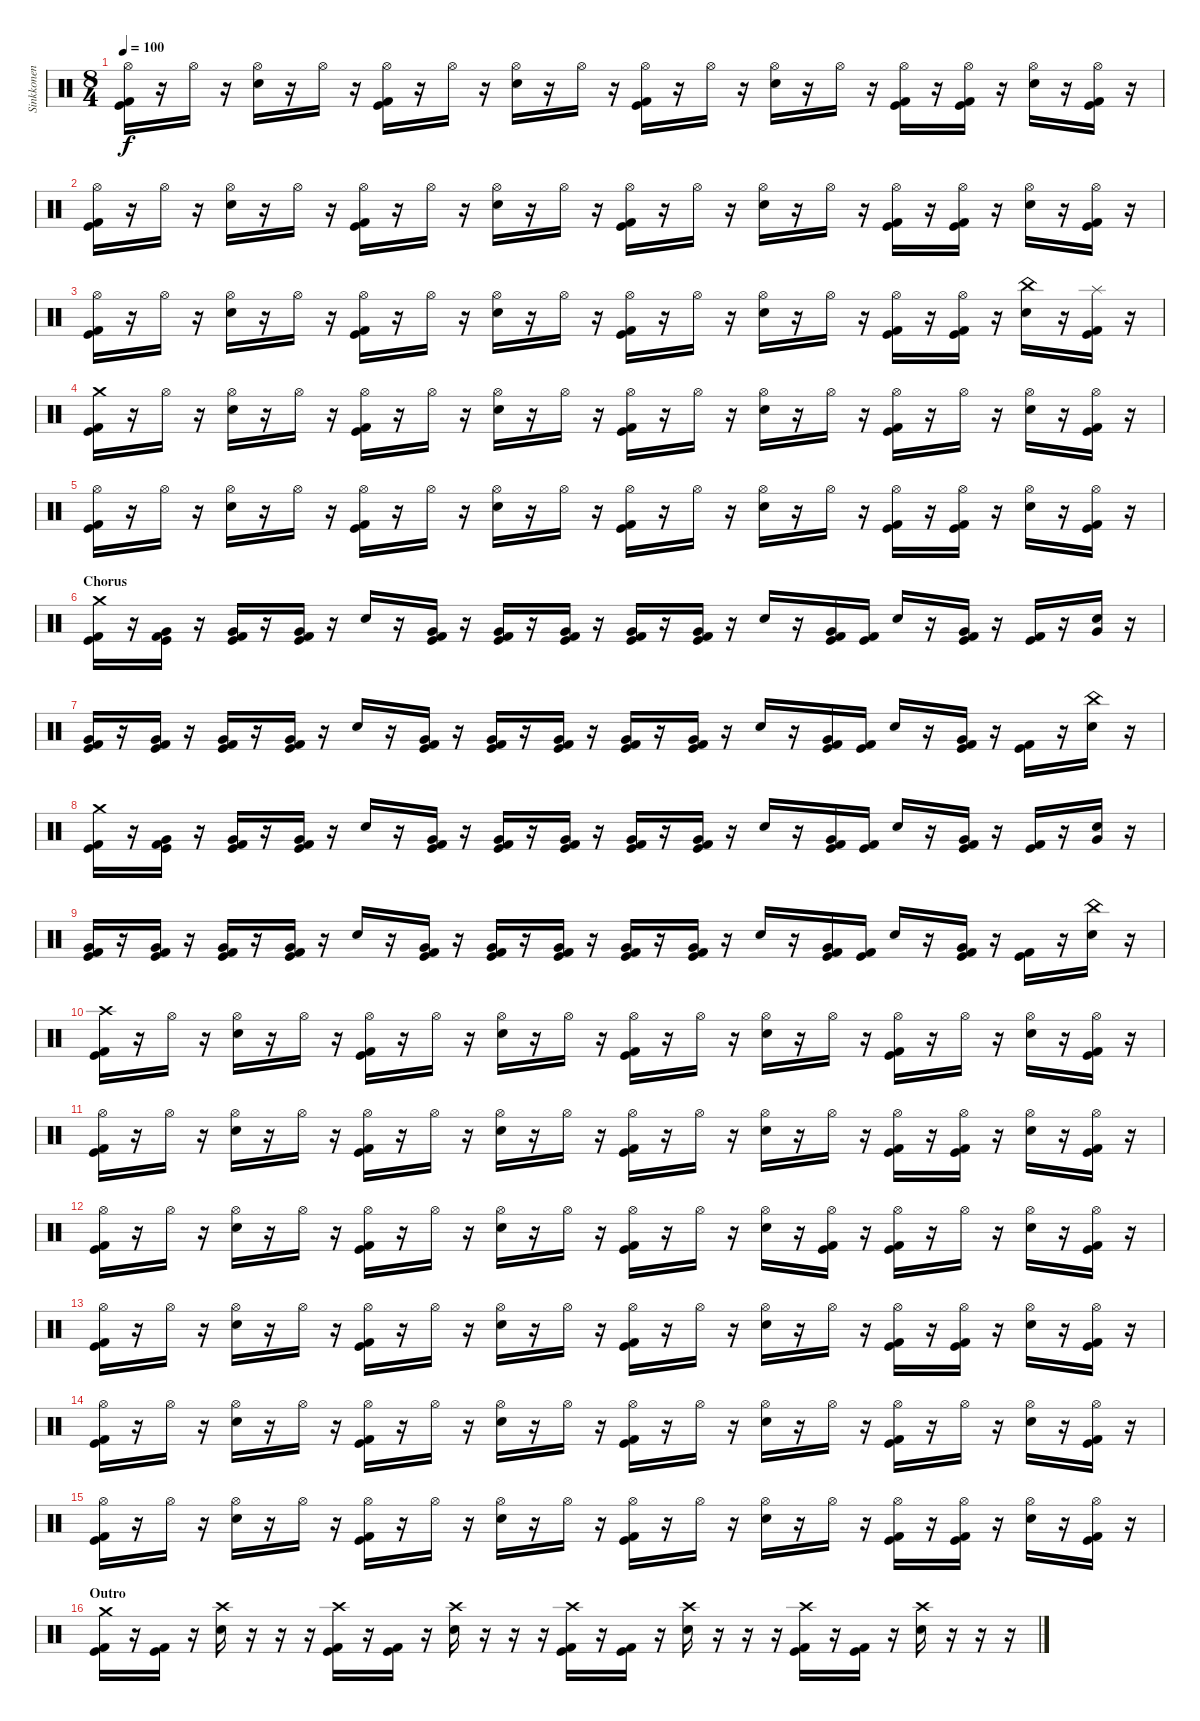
\track ("Sinkkonen" "Sinkkonen") {instrument percussion}
\staff {score}
\articulation defaults
\ts (8 4)
\tempo 100
\clef neutral
\ks c
("Hi-Hat (open)" "Kick (hit) 2" "Kick (hit)").16{dy f} r.16 "Hi-Hat (open)".16 r.16 ("Hi-Hat (open)" "Electric Snare (hit)").16 r.16 "Hi-Hat (open)".16 r.16 ("Hi-Hat (open)" "Kick (hit) 2" "Kick (hit)").16 r.16 "Hi-Hat (open)".16 r.16 ("Hi-Hat (open)" "Electric Snare (hit)").16 r.16 "Hi-Hat (open)".16 r.16 ("Hi-Hat (open)" "Kick (hit) 2" "Kick (hit)").16 r.16 "Hi-Hat (open)".16 r.16 ("Hi-Hat (open)" "Electric Snare (hit)").16 r.16 "Hi-Hat (open)".16 r.16 ("Hi-Hat (open)" "Kick (hit) 2" "Kick (hit)").16 r.16 ("Hi-Hat (open)" "Kick (hit) 2" "Kick (hit)").16 r.16 ("Hi-Hat (open)" "Electric Snare (hit)").16 r.16 ("Hi-Hat (open)" "Kick (hit) 2" "Kick (hit)").16 r.16 |
("Hi-Hat (open)" "Kick (hit) 2" "Kick (hit)").16 r.16 "Hi-Hat (open)".16 r.16 ("Hi-Hat (open)" "Electric Snare (hit)").16 r.16 "Hi-Hat (open)".16 r.16 ("Hi-Hat (open)" "Kick (hit) 2" "Kick (hit)").16 r.16 "Hi-Hat (open)".16 r.16 ("Hi-Hat (open)" "Electric Snare (hit)").16 r.16 "Hi-Hat (open)".16 r.16 ("Hi-Hat (open)" "Kick (hit) 2" "Kick (hit)").16 r.16 "Hi-Hat (open)".16 r.16 ("Hi-Hat (open)" "Electric Snare (hit)").16 r.16 "Hi-Hat (open)".16 r.16 ("Hi-Hat (open)" "Kick (hit) 2" "Kick (hit)").16 r.16 ("Hi-Hat (open)" "Kick (hit) 2" "Kick (hit)").16 r.16 ("Hi-Hat (open)" "Electric Snare (hit)").16 r.16 ("Hi-Hat (open)" "Kick (hit) 2" "Kick (hit)").16 r.16 |
("Hi-Hat (open)" "Kick (hit) 2" "Kick (hit)").16 r.16 "Hi-Hat (open)".16 r.16 ("Hi-Hat (open)" "Electric Snare (hit)").16 r.16 "Hi-Hat (open)".16 r.16 ("Hi-Hat (open)" "Kick (hit) 2" "Kick (hit)").16 r.16 "Hi-Hat (open)".16 r.16 ("Hi-Hat (open)" "Electric Snare (hit)").16 r.16 "Hi-Hat (open)".16 r.16 ("Hi-Hat (open)" "Kick (hit) 2" "Kick (hit)").16 r.16 "Hi-Hat (open)".16 r.16 ("Hi-Hat (open)" "Electric Snare (hit)").16 r.16 "Hi-Hat (open)".16 r.16 ("Hi-Hat (open)" "Kick (hit) 2" "Kick (hit)").16 r.16 ("Hi-Hat (open)" "Kick (hit) 2" "Kick (hit)").16 r.16 ("China (hit)" "Electric Snare (hit)").16 r.16 ("Splash (hit)" "Kick (hit) 2" "Kick (hit)").16 r.16 |
("Crash medium (hit)" "Kick (hit) 2" "Kick (hit)").16 r.16 "Hi-Hat (open)".16 r.16 ("Hi-Hat (open)" "Electric Snare (hit)").16 r.16 "Hi-Hat (open)".16 r.16 ("Hi-Hat (open)" "Kick (hit) 2" "Kick (hit)").16 r.16 "Hi-Hat (open)".16 r.16 ("Hi-Hat (open)" "Electric Snare (hit)").16 r.16 "Hi-Hat (open)".16 r.16 ("Hi-Hat (open)" "Kick (hit) 2" "Kick (hit)").16 r.16 "Hi-Hat (open)".16 r.16 ("Hi-Hat (open)" "Electric Snare (hit)").16 r.16 "Hi-Hat (open)".16 r.16 ("Hi-Hat (open)" "Kick (hit) 2" "Kick (hit)").16 r.16 "Hi-Hat (open)".16 r.16 ("Hi-Hat (open)" "Electric Snare (hit)").16 r.16 ("Hi-Hat (open)" "Kick (hit) 2" "Kick (hit)").16 r.16 |
("Hi-Hat (open)" "Kick (hit) 2" "Kick (hit)").16 r.16 "Hi-Hat (open)".16 r.16 ("Hi-Hat (open)" "Electric Snare (hit)").16 r.16 "Hi-Hat (open)".16 r.16 ("Hi-Hat (open)" "Kick (hit) 2" "Kick (hit)").16 r.16 "Hi-Hat (open)".16 r.16 ("Hi-Hat (open)" "Electric Snare (hit)").16 r.16 "Hi-Hat (open)".16 r.16 ("Hi-Hat (open)" "Kick (hit) 2" "Kick (hit)").16 r.16 "Hi-Hat (open)".16 r.16 ("Hi-Hat (open)" "Electric Snare (hit)").16 r.16 "Hi-Hat (open)".16 r.16 ("Hi-Hat (open)" "Kick (hit) 2" "Kick (hit)").16 r.16 ("Hi-Hat (open)" "Kick (hit) 2" "Kick (hit)").16 r.16 ("Hi-Hat (open)" "Electric Snare (hit)").16 r.16 ("Hi-Hat (open)" "Kick (hit) 2" "Kick (hit)").16 r.16 |
\section ("" "Chorus")
("Crash medium (hit)" "Kick (hit) 2" "Kick (hit)").16 r.16 ("Very Low Tom (hit)" "Kick (hit) 2" "Kick (hit)").16 r.16 ("Very Low Tom (hit)" "Kick (hit) 2" "Kick (hit)").16 r.16 ("Very Low Tom (hit)" "Kick (hit) 2" "Kick (hit)").16 r.16 "Electric Snare (hit)".16 r.16 ("Very Low Tom (hit)" "Kick (hit) 2" "Kick (hit)").16 r.16 ("Very Low Tom (hit)" "Kick (hit) 2" "Kick (hit)").16 r.16 ("Very Low Tom (hit)" "Kick (hit) 2" "Kick (hit)").16 r.16 ("Very Low Tom (hit)" "Kick (hit) 2" "Kick (hit)").16 r.16 ("Very Low Tom (hit)" "Kick (hit) 2" "Kick (hit)").16 r.16 "Electric Snare (hit)".16 r.16 ("Very Low Tom (hit)" "Kick (hit) 2" "Kick (hit)").16 ("Kick (hit) 2" "Kick (hit)").16 "Electric Snare (hit)".16 r.16 ("Very Low Tom (hit)" "Kick (hit) 2" "Kick (hit)").16 r.16 ("Kick (hit) 2" "Kick (hit)").16 r.16 ("Very Low Tom (hit)" "Electric Snare (hit)").16 r.16 |
("Very Low Tom (hit)" "Kick (hit) 2" "Kick (hit)").16 r.16 ("Very Low Tom (hit)" "Kick (hit) 2" "Kick (hit)").16 r.16 ("Very Low Tom (hit)" "Kick (hit) 2" "Kick (hit)").16 r.16 ("Very Low Tom (hit)" "Kick (hit) 2" "Kick (hit)").16 r.16 "Electric Snare (hit)".16 r.16 ("Very Low Tom (hit)" "Kick (hit) 2" "Kick (hit)").16 r.16 ("Very Low Tom (hit)" "Kick (hit) 2" "Kick (hit)").16 r.16 ("Very Low Tom (hit)" "Kick (hit) 2" "Kick (hit)").16 r.16 ("Very Low Tom (hit)" "Kick (hit) 2" "Kick (hit)").16 r.16 ("Very Low Tom (hit)" "Kick (hit) 2" "Kick (hit)").16 r.16 "Electric Snare (hit)".16 r.16 ("Very Low Tom (hit)" "Kick (hit) 2" "Kick (hit)").16 ("Kick (hit) 2" "Kick (hit)").16 "Electric Snare (hit)".16 r.16 ("Very Low Tom (hit)" "Kick (hit) 2" "Kick (hit)").16 r.16 ("Kick (hit) 2" "Kick (hit)").16 r.16 ("China (hit)" "Electric Snare (hit)").16 r.16 |
("Crash medium (hit)" "Kick (hit) 2" "Kick (hit)").16 r.16 ("Very Low Tom (hit)" "Kick (hit) 2" "Kick (hit)").16 r.16 ("Very Low Tom (hit)" "Kick (hit) 2" "Kick (hit)").16 r.16 ("Very Low Tom (hit)" "Kick (hit) 2" "Kick (hit)").16 r.16 "Electric Snare (hit)".16 r.16 ("Very Low Tom (hit)" "Kick (hit) 2" "Kick (hit)").16 r.16 ("Very Low Tom (hit)" "Kick (hit) 2" "Kick (hit)").16 r.16 ("Very Low Tom (hit)" "Kick (hit) 2" "Kick (hit)").16 r.16 ("Very Low Tom (hit)" "Kick (hit) 2" "Kick (hit)").16 r.16 ("Very Low Tom (hit)" "Kick (hit) 2" "Kick (hit)").16 r.16 "Electric Snare (hit)".16 r.16 ("Very Low Tom (hit)" "Kick (hit) 2" "Kick (hit)").16 ("Kick (hit) 2" "Kick (hit)").16 "Electric Snare (hit)".16 r.16 ("Very Low Tom (hit)" "Kick (hit) 2" "Kick (hit)").16 r.16 ("Kick (hit) 2" "Kick (hit)").16 r.16 ("Very Low Tom (hit)" "Electric Snare (hit)").16 r.16 |
("Very Low Tom (hit)" "Kick (hit) 2" "Kick (hit)").16 r.16 ("Very Low Tom (hit)" "Kick (hit) 2" "Kick (hit)").16 r.16 ("Very Low Tom (hit)" "Kick (hit) 2" "Kick (hit)").16 r.16 ("Very Low Tom (hit)" "Kick (hit) 2" "Kick (hit)").16 r.16 "Electric Snare (hit)".16 r.16 ("Very Low Tom (hit)" "Kick (hit) 2" "Kick (hit)").16 r.16 ("Very Low Tom (hit)" "Kick (hit) 2" "Kick (hit)").16 r.16 ("Very Low Tom (hit)" "Kick (hit) 2" "Kick (hit)").16 r.16 ("Very Low Tom (hit)" "Kick (hit) 2" "Kick (hit)").16 r.16 ("Very Low Tom (hit)" "Kick (hit) 2" "Kick (hit)").16 r.16 "Electric Snare (hit)".16 r.16 ("Very Low Tom (hit)" "Kick (hit) 2" "Kick (hit)").16 ("Kick (hit) 2" "Kick (hit)").16 "Electric Snare (hit)".16 r.16 ("Very Low Tom (hit)" "Kick (hit) 2" "Kick (hit)").16 r.16 ("Kick (hit) 2" "Kick (hit)").16 r.16 ("China (hit)" "Electric Snare (hit)").16 r.16 |
("Crash high (hit)" "Kick (hit) 2" "Kick (hit)").16 r.16 "Hi-Hat (open)".16 r.16 ("Hi-Hat (open)" "Electric Snare (hit)").16 r.16 "Hi-Hat (open)".16 r.16 ("Hi-Hat (open)" "Kick (hit) 2" "Kick (hit)").16 r.16 "Hi-Hat (open)".16 r.16 ("Hi-Hat (open)" "Electric Snare (hit)").16 r.16 "Hi-Hat (open)".16 r.16 ("Hi-Hat (open)" "Kick (hit) 2" "Kick (hit)").16 r.16 "Hi-Hat (open)".16 r.16 ("Hi-Hat (open)" "Electric Snare (hit)").16 r.16 "Hi-Hat (open)".16 r.16 ("Hi-Hat (open)" "Kick (hit) 2" "Kick (hit)").16 r.16 "Hi-Hat (open)".16 r.16 ("Hi-Hat (open)" "Electric Snare (hit)").16 r.16 ("Hi-Hat (open)" "Kick (hit) 2" "Kick (hit)").16 r.16 |
("Hi-Hat (open)" "Kick (hit) 2" "Kick (hit)").16 r.16 "Hi-Hat (open)".16 r.16 ("Hi-Hat (open)" "Electric Snare (hit)").16 r.16 "Hi-Hat (open)".16 r.16 ("Hi-Hat (open)" "Kick (hit) 2" "Kick (hit)").16 r.16 "Hi-Hat (open)".16 r.16 ("Hi-Hat (open)" "Electric Snare (hit)").16 r.16 "Hi-Hat (open)".16 r.16 ("Hi-Hat (open)" "Kick (hit) 2" "Kick (hit)").16 r.16 "Hi-Hat (open)".16 r.16 ("Hi-Hat (open)" "Electric Snare (hit)").16 r.16 "Hi-Hat (open)".16 r.16 ("Hi-Hat (open)" "Kick (hit) 2" "Kick (hit)").16 r.16 ("Hi-Hat (open)" "Kick (hit) 2" "Kick (hit)").16 r.16 ("Hi-Hat (open)" "Electric Snare (hit)").16 r.16 ("Hi-Hat (open)" "Kick (hit) 2" "Kick (hit)").16 r.16 |
("Hi-Hat (open)" "Kick (hit) 2" "Kick (hit)").16 r.16 "Hi-Hat (open)".16 r.16 ("Hi-Hat (open)" "Electric Snare (hit)").16 r.16 "Hi-Hat (open)".16 r.16 ("Hi-Hat (open)" "Kick (hit) 2" "Kick (hit)").16 r.16 "Hi-Hat (open)".16 r.16 ("Hi-Hat (open)" "Electric Snare (hit)").16 r.16 "Hi-Hat (open)".16 r.16 ("Hi-Hat (open)" "Kick (hit) 2" "Kick (hit)").16 r.16 "Hi-Hat (open)".16 r.16 ("Hi-Hat (open)" "Electric Snare (hit)").16 r.16 ("Hi-Hat (open)" "Kick (hit) 2" "Kick (hit)").16 r.16 ("Hi-Hat (open)" "Kick (hit) 2" "Kick (hit)").16 r.16 "Hi-Hat (open)".16 r.16 ("Hi-Hat (open)" "Electric Snare (hit)").16 r.16 ("Hi-Hat (open)" "Kick (hit) 2" "Kick (hit)").16 r.16 |
("Hi-Hat (open)" "Kick (hit) 2" "Kick (hit)").16 r.16 "Hi-Hat (open)".16 r.16 ("Hi-Hat (open)" "Electric Snare (hit)").16 r.16 "Hi-Hat (open)".16 r.16 ("Hi-Hat (open)" "Kick (hit) 2" "Kick (hit)").16 r.16 "Hi-Hat (open)".16 r.16 ("Hi-Hat (open)" "Electric Snare (hit)").16 r.16 "Hi-Hat (open)".16 r.16 ("Hi-Hat (open)" "Kick (hit) 2" "Kick (hit)").16 r.16 "Hi-Hat (open)".16 r.16 ("Hi-Hat (open)" "Electric Snare (hit)").16 r.16 "Hi-Hat (open)".16 r.16 ("Hi-Hat (open)" "Kick (hit) 2" "Kick (hit)").16 r.16 ("Hi-Hat (open)" "Kick (hit) 2" "Kick (hit)").16 r.16 ("Hi-Hat (open)" "Electric Snare (hit)").16 r.16 ("Hi-Hat (open)" "Kick (hit) 2" "Kick (hit)").16 r.16 |
("Hi-Hat (open)" "Kick (hit) 2" "Kick (hit)").16 r.16 "Hi-Hat (open)".16 r.16 ("Hi-Hat (open)" "Electric Snare (hit)").16 r.16 "Hi-Hat (open)".16 r.16 ("Hi-Hat (open)" "Kick (hit) 2" "Kick (hit)").16 r.16 "Hi-Hat (open)".16 r.16 ("Hi-Hat (open)" "Electric Snare (hit)").16 r.16 "Hi-Hat (open)".16 r.16 ("Hi-Hat (open)" "Kick (hit) 2" "Kick (hit)").16 r.16 "Hi-Hat (open)".16 r.16 ("Hi-Hat (open)" "Electric Snare (hit)").16 r.16 "Hi-Hat (open)".16 r.16 ("Hi-Hat (open)" "Kick (hit) 2" "Kick (hit)").16 r.16 "Hi-Hat (open)".16 r.16 ("Hi-Hat (open)" "Electric Snare (hit)").16 r.16 ("Hi-Hat (open)" "Kick (hit) 2" "Kick (hit)").16 r.16 |
("Hi-Hat (open)" "Kick (hit) 2" "Kick (hit)").16 r.16 "Hi-Hat (open)".16 r.16 ("Hi-Hat (open)" "Electric Snare (hit)").16 r.16 "Hi-Hat (open)".16 r.16 ("Hi-Hat (open)" "Kick (hit) 2" "Kick (hit)").16 r.16 "Hi-Hat (open)".16 r.16 ("Hi-Hat (open)" "Electric Snare (hit)").16 r.16 "Hi-Hat (open)".16 r.16 ("Hi-Hat (open)" "Kick (hit) 2" "Kick (hit)").16 r.16 "Hi-Hat (open)".16 r.16 ("Hi-Hat (open)" "Electric Snare (hit)").16 r.16 "Hi-Hat (open)".16 r.16 ("Hi-Hat (open)" "Kick (hit) 2" "Kick (hit)").16 r.16 ("Hi-Hat (open)" "Kick (hit) 2" "Kick (hit)").16 r.16 ("Hi-Hat (open)" "Electric Snare (hit)").16 r.16 ("Hi-Hat (open)" "Kick (hit) 2" "Kick (hit)").16 r.16 |
\section ("" "Outro")
("Crash medium (hit)" "Kick (hit) 2" "Kick (hit)").16 r.16 ("Kick (hit) 2" "Kick (hit)").16 r.16 ("Crash high (hit)" "Electric Snare (hit)").16 r.16 r.16 r.16 ("Crash high (hit)" "Kick (hit) 2" "Kick (hit)").16 r.16 ("Kick (hit) 2" "Kick (hit)").16 r.16 ("Crash high (hit)" "Electric Snare (hit)").16 r.16 r.16 r.16 ("Crash high (hit)" "Kick (hit) 2" "Kick (hit)").16 r.16 ("Kick (hit) 2" "Kick (hit)").16 r.16 ("Crash high (hit)" "Electric Snare (hit)").16 r.16 r.16 r.16 ("Crash high (hit)" "Kick (hit) 2" "Kick (hit)").16 r.16 ("Kick (hit) 2" "Kick (hit)").16 r.16 ("Crash high (hit)" "Electric Snare (hit)").16 r.16 r.16 r.16
